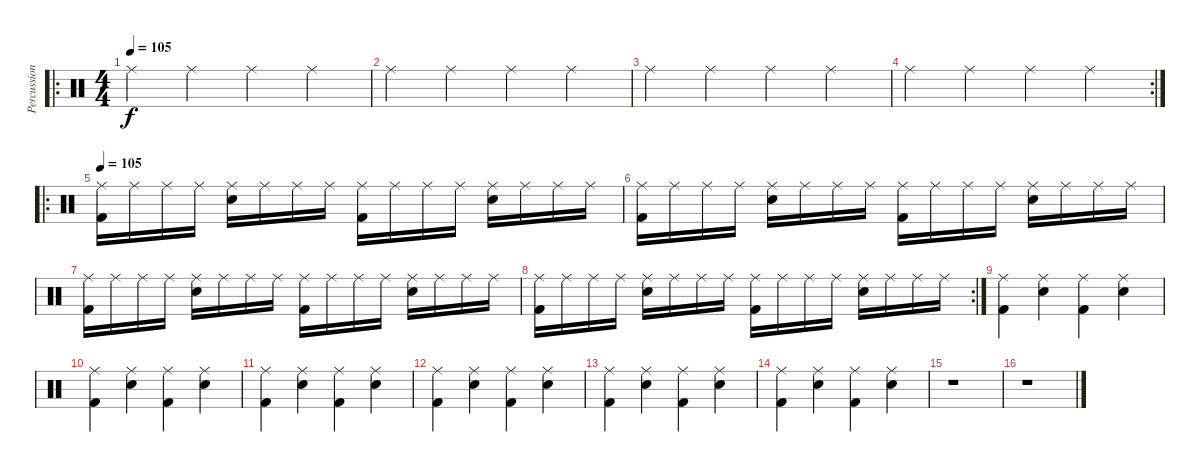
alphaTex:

\track ("Percussions" "Percussion") {instrument percussion}
\staff {score}
\articulation defaults
\ro
\ts (4 4)
\tempo 105
\tempo 95
\tempo 105
\clef neutral
\ks c "Ride (middle)".4{dy f} "Ride (middle)".4 "Ride (middle)".4 "Ride (middle)".4
|
"Ride (middle)".4 "Ride (middle)".4 "Ride (middle)".4 "Ride (middle)".4 |
"Ride (middle)".4 "Ride (middle)".4 "Ride (middle)".4 "Ride (middle)".4 |
\rc 2 "Ride (middle)".4 "Ride (middle)".4 "Ride (middle)".4 "Ride (middle)".4
|
\ro
\tempo 105
("Ride (middle)" "Kick (hit) 2").16 "Ride (middle)".16 "Ride (middle)".16 "Ride (middle)".16 ("Ride (middle)" "Electric Snare (hit)").16 "Ride (middle)".16 "Ride (middle)".16 "Ride (middle)".16 ("Ride (middle)" "Kick (hit) 2").16 "Ride (middle)".16 "Ride (middle)".16 "Ride (middle)".16 ("Ride (middle)" "Electric Snare (hit)").16 "Ride (middle)".16 "Ride (middle)".16 "Ride (middle)".16 |
("Ride (middle)" "Kick (hit) 2").16 "Ride (middle)".16 "Ride (middle)".16 "Ride (middle)".16 ("Ride (middle)" "Electric Snare (hit)").16 "Ride (middle)".16 "Ride (middle)".16 "Ride (middle)".16 ("Ride (middle)" "Kick (hit) 2").16 "Ride (middle)".16 "Ride (middle)".16 "Ride (middle)".16 ("Ride (middle)" "Electric Snare (hit)").16 "Ride (middle)".16 "Ride (middle)".16 "Ride (middle)".16 |
("Ride (middle)" "Kick (hit) 2").16 "Ride (middle)".16 "Ride (middle)".16 "Ride (middle)".16 ("Ride (middle)" "Electric Snare (hit)").16 "Ride (middle)".16 "Ride (middle)".16 "Ride (middle)".16 ("Ride (middle)" "Kick (hit) 2").16 "Ride (middle)".16 "Ride (middle)".16 "Ride (middle)".16 ("Ride (middle)" "Electric Snare (hit)").16 "Ride (middle)".16 "Ride (middle)".16 "Ride (middle)".16 |
\rc 2
("Ride (middle)" "Kick (hit) 2").16 "Ride (middle)".16 "Ride (middle)".16 "Ride (middle)".16 ("Ride (middle)" "Electric Snare (hit)").16 "Ride (middle)".16 "Ride (middle)".16 "Ride (middle)".16 ("Ride (middle)" "Kick (hit) 2").16 "Ride (middle)".16 "Ride (middle)".16 "Ride (middle)".16 ("Ride (middle)" "Electric Snare (hit)").16 "Ride (middle)".16 "Ride (middle)".16 "Ride (middle)".16 |
("Ride (middle)" "Kick (hit) 2").4 ("Ride (middle)" "Electric Snare (hit)").4 ("Ride (middle)" "Kick (hit) 2").4 ("Ride (middle)" "Electric Snare (hit)").4 |
("Ride (middle)" "Kick (hit) 2").4 ("Ride (middle)" "Electric Snare (hit)").4 ("Ride (middle)" "Kick (hit) 2").4 ("Ride (middle)" "Electric Snare (hit)").4 |
("Ride (middle)" "Kick (hit) 2").4 ("Ride (middle)" "Electric Snare (hit)").4 ("Ride (middle)" "Kick (hit) 2").4 ("Ride (middle)" "Electric Snare (hit)").4 |
("Ride (middle)" "Kick (hit) 2").4 ("Ride (middle)" "Electric Snare (hit)").4 ("Ride (middle)" "Kick (hit) 2").4 ("Ride (middle)" "Electric Snare (hit)").4 |
("Ride (middle)" "Kick (hit) 2").4 ("Ride (middle)" "Electric Snare (hit)").4 ("Ride (middle)" "Kick (hit) 2").4 ("Ride (middle)" "Electric Snare (hit)").4 |
("Ride (middle)" "Kick (hit) 2").4 ("Ride (middle)" "Electric Snare (hit)").4 ("Ride (middle)" "Kick (hit) 2").4 ("Ride (middle)" "Electric Snare (hit)").4 |
r.1 |
r.1
